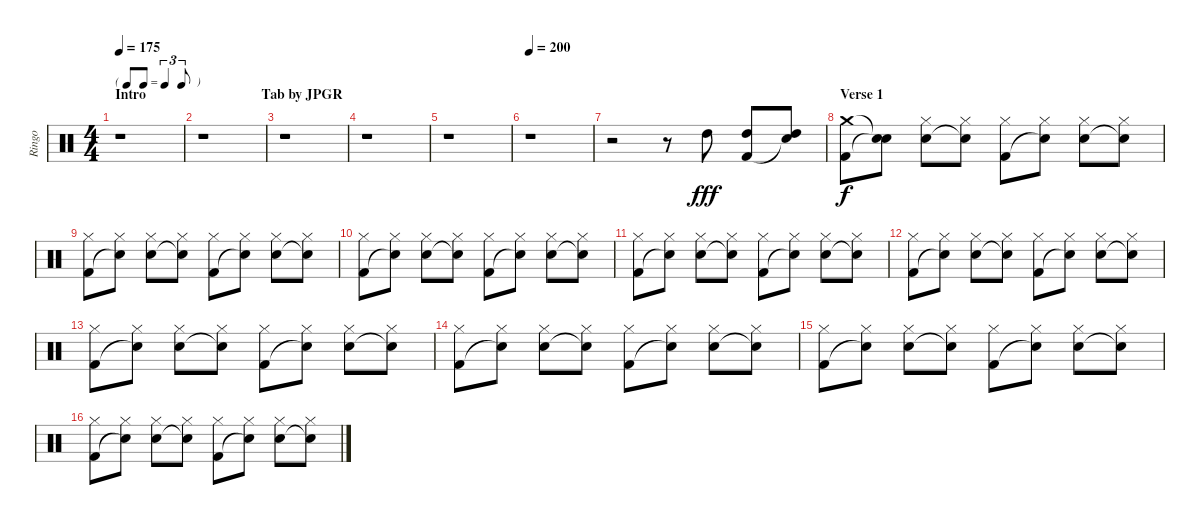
\track ("Ringo" "Ringo") {instrument percussion}
\staff {score}
\articulation defaults
\ts (4 4)
\tf triplet8th
\section ("" "Intro                                 Tab by JPGR")
\tempo 175
\tempo 130
\tempo 175
\clef neutral
\ks c
r.1{dy fff} |
r.1 |
r.1 |
r.1 |
r.1 |
\tempo 200
r.1 |
r.2 r.8 "High Tom (hit)".8 ("High Tom (hit)" "Kick (hit) 2").8 ("High Tom (hit)" "Snare (hit)"{t}).8 |
\section ("" "Verse 1")
("Crash medium (hit)" "Kick (hit) 2").8{dy f} ("Snare (hit)"{t} "Snare (hit)"{t}).8 ("Hi-Hat (closed)" "Electric Snare (hit)").8 ("Hi-Hat (closed)" "Snare (hit)"{t}).8 ("Hi-Hat (closed)" "Kick (hit) 2").8 ("Hi-Hat (closed)" "Snare (hit)"{t}).8 ("Hi-Hat (closed)" "Electric Snare (hit)").8 ("Hi-Hat (closed)" "Snare (hit)"{t}).8 |
("Hi-Hat (closed)" "Kick (hit) 2").8 ("Hi-Hat (closed)" "Snare (hit)"{t}).8 ("Hi-Hat (closed)" "Electric Snare (hit)").8 ("Hi-Hat (closed)" "Snare (hit)"{t}).8 ("Hi-Hat (closed)" "Kick (hit) 2").8 ("Hi-Hat (closed)" "Snare (hit)"{t}).8 ("Hi-Hat (closed)" "Electric Snare (hit)").8 ("Hi-Hat (closed)" "Snare (hit)"{t}).8 |
("Hi-Hat (closed)" "Kick (hit) 2").8 ("Hi-Hat (closed)" "Snare (hit)"{t}).8 ("Hi-Hat (closed)" "Electric Snare (hit)").8 ("Hi-Hat (closed)" "Snare (hit)"{t}).8 ("Hi-Hat (closed)" "Kick (hit) 2").8 ("Hi-Hat (closed)" "Snare (hit)"{t}).8 ("Hi-Hat (closed)" "Electric Snare (hit)").8 ("Hi-Hat (closed)" "Snare (hit)"{t}).8 |
("Hi-Hat (closed)" "Kick (hit) 2").8 ("Hi-Hat (closed)" "Snare (hit)"{t}).8 ("Hi-Hat (closed)" "Electric Snare (hit)").8 ("Hi-Hat (closed)" "Snare (hit)"{t}).8 ("Hi-Hat (closed)" "Kick (hit) 2").8 ("Hi-Hat (closed)" "Snare (hit)"{t}).8 ("Hi-Hat (closed)" "Electric Snare (hit)").8 ("Hi-Hat (closed)" "Snare (hit)"{t}).8 |
("Hi-Hat (closed)" "Kick (hit) 2").8 ("Hi-Hat (closed)" "Snare (hit)"{t}).8 ("Hi-Hat (closed)" "Electric Snare (hit)").8 ("Hi-Hat (closed)" "Snare (hit)"{t}).8 ("Hi-Hat (closed)" "Kick (hit) 2").8 ("Hi-Hat (closed)" "Snare (hit)"{t}).8 ("Hi-Hat (closed)" "Electric Snare (hit)").8 ("Hi-Hat (closed)" "Snare (hit)"{t}).8 |
("Hi-Hat (closed)" "Kick (hit) 2").8 ("Hi-Hat (closed)" "Snare (hit)"{t}).8 ("Hi-Hat (closed)" "Electric Snare (hit)").8 ("Hi-Hat (closed)" "Snare (hit)"{t}).8 ("Hi-Hat (closed)" "Kick (hit) 2").8 ("Hi-Hat (closed)" "Snare (hit)"{t}).8 ("Hi-Hat (closed)" "Electric Snare (hit)").8 ("Hi-Hat (closed)" "Snare (hit)"{t}).8 |
("Hi-Hat (closed)" "Kick (hit) 2").8 ("Hi-Hat (closed)" "Snare (hit)"{t}).8 ("Hi-Hat (closed)" "Electric Snare (hit)").8 ("Hi-Hat (closed)" "Snare (hit)"{t}).8 ("Hi-Hat (closed)" "Kick (hit) 2").8 ("Hi-Hat (closed)" "Snare (hit)"{t}).8 ("Hi-Hat (closed)" "Electric Snare (hit)").8 ("Hi-Hat (closed)" "Snare (hit)"{t}).8 |
("Hi-Hat (closed)" "Kick (hit) 2").8 ("Hi-Hat (closed)" "Snare (hit)"{t}).8 ("Hi-Hat (closed)" "Electric Snare (hit)").8 ("Hi-Hat (closed)" "Snare (hit)"{t}).8 ("Hi-Hat (closed)" "Kick (hit) 2").8 ("Hi-Hat (closed)" "Snare (hit)"{t}).8 ("Hi-Hat (closed)" "Electric Snare (hit)").8 ("Hi-Hat (closed)" "Snare (hit)"{t}).8 |
("Hi-Hat (closed)" "Kick (hit) 2").8 ("Hi-Hat (closed)" "Snare (hit)"{t}).8 ("Hi-Hat (closed)" "Electric Snare (hit)").8 ("Hi-Hat (closed)" "Snare (hit)"{t}).8 ("Hi-Hat (closed)" "Kick (hit) 2").8 ("Hi-Hat (closed)" "Snare (hit)"{t}).8 ("Hi-Hat (closed)" "Electric Snare (hit)").8 ("Hi-Hat (closed)" "Snare (hit)"{t}).8
